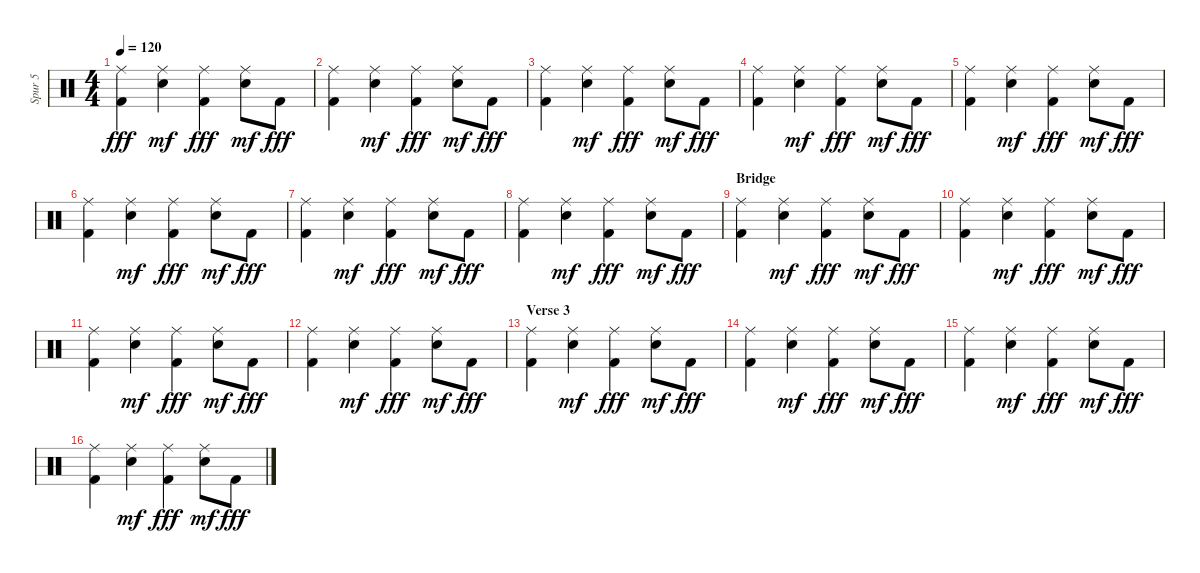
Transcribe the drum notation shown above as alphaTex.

\track ("Spur 5" "Spur 5") {instrument percussion}
\staff {score}
\articulation defaults
\ts (4 4)
\tempo 120
\clef neutral
\ks c
("Ride (middle)" "Kick (hit) 2").4{dy fff} ("Ride (middle)" "Snare (hit) 2").4{dy mf} ("Ride (middle)" "Kick (hit) 2").4{dy fff} ("Ride (middle)" "Snare (hit) 2").8{dy mf} "Kick (hit) 2".8{dy fff} |
("Ride (middle)" "Kick (hit) 2").4 ("Ride (middle)" "Snare (hit) 2").4{dy mf} ("Ride (middle)" "Kick (hit) 2").4{dy fff} ("Ride (middle)" "Snare (hit) 2").8{dy mf} "Kick (hit) 2".8{dy fff} |
("Ride (middle)" "Kick (hit) 2").4 ("Ride (middle)" "Snare (hit) 2").4{dy mf} ("Ride (middle)" "Kick (hit) 2").4{dy fff} ("Ride (middle)" "Snare (hit) 2").8{dy mf} "Kick (hit) 2".8{dy fff} |
("Ride (middle)" "Kick (hit) 2").4 ("Ride (middle)" "Snare (hit) 2").4{dy mf} ("Ride (middle)" "Kick (hit) 2").4{dy fff} ("Ride (middle)" "Snare (hit) 2").8{dy mf} "Kick (hit) 2".8{dy fff} |
("Ride (middle)" "Kick (hit) 2").4 ("Ride (middle)" "Snare (hit) 2").4{dy mf} ("Ride (middle)" "Kick (hit) 2").4{dy fff} ("Ride (middle)" "Snare (hit) 2").8{dy mf} "Kick (hit) 2".8{dy fff} |
("Ride (middle)" "Kick (hit) 2").4 ("Ride (middle)" "Snare (hit) 2").4{dy mf} ("Ride (middle)" "Kick (hit) 2").4{dy fff} ("Ride (middle)" "Snare (hit) 2").8{dy mf} "Kick (hit) 2".8{dy fff} |
("Ride (middle)" "Kick (hit) 2").4 ("Ride (middle)" "Snare (hit) 2").4{dy mf} ("Ride (middle)" "Kick (hit) 2").4{dy fff} ("Ride (middle)" "Snare (hit) 2").8{dy mf} "Kick (hit) 2".8{dy fff} |
("Ride (middle)" "Kick (hit) 2").4 ("Ride (middle)" "Snare (hit) 2").4{dy mf} ("Ride (middle)" "Kick (hit) 2").4{dy fff} ("Ride (middle)" "Snare (hit) 2").8{dy mf} "Kick (hit) 2".8{dy fff} |
\section ("" "Bridge")
("Ride (middle)" "Kick (hit) 2").4 ("Ride (middle)" "Snare (hit) 2").4{dy mf} ("Ride (middle)" "Kick (hit) 2").4{dy fff} ("Ride (middle)" "Snare (hit) 2").8{dy mf} "Kick (hit) 2".8{dy fff} |
("Ride (middle)" "Kick (hit) 2").4 ("Ride (middle)" "Snare (hit) 2").4{dy mf} ("Ride (middle)" "Kick (hit) 2").4{dy fff} ("Ride (middle)" "Snare (hit) 2").8{dy mf} "Kick (hit) 2".8{dy fff} |
("Ride (middle)" "Kick (hit) 2").4 ("Ride (middle)" "Snare (hit) 2").4{dy mf} ("Ride (middle)" "Kick (hit) 2").4{dy fff} ("Ride (middle)" "Snare (hit) 2").8{dy mf} "Kick (hit) 2".8{dy fff} |
("Ride (middle)" "Kick (hit) 2").4 ("Ride (middle)" "Snare (hit) 2").4{dy mf} ("Ride (middle)" "Kick (hit) 2").4{dy fff} ("Ride (middle)" "Snare (hit) 2").8{dy mf} "Kick (hit) 2".8{dy fff} |
\section ("" "Verse 3")
("Ride (middle)" "Kick (hit) 2").4 ("Ride (middle)" "Snare (hit) 2").4{dy mf} ("Ride (middle)" "Kick (hit) 2").4{dy fff} ("Ride (middle)" "Snare (hit) 2").8{dy mf} "Kick (hit) 2".8{dy fff} |
("Ride (middle)" "Kick (hit) 2").4 ("Ride (middle)" "Snare (hit) 2").4{dy mf} ("Ride (middle)" "Kick (hit) 2").4{dy fff} ("Ride (middle)" "Snare (hit) 2").8{dy mf} "Kick (hit) 2".8{dy fff} |
("Ride (middle)" "Kick (hit) 2").4 ("Ride (middle)" "Snare (hit) 2").4{dy mf} ("Ride (middle)" "Kick (hit) 2").4{dy fff} ("Ride (middle)" "Snare (hit) 2").8{dy mf} "Kick (hit) 2".8{dy fff} |
("Ride (middle)" "Kick (hit) 2").4 ("Ride (middle)" "Snare (hit) 2").4{dy mf} ("Ride (middle)" "Kick (hit) 2").4{dy fff} ("Ride (middle)" "Snare (hit) 2").8{dy mf} "Kick (hit) 2".8{dy fff}
